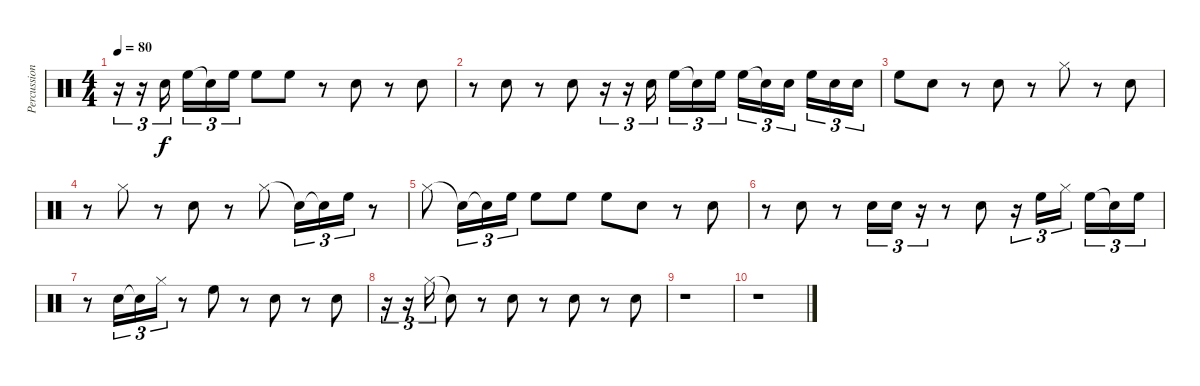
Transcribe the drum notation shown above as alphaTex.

\track ("Percussion" "Percussion") {instrument percussion}
\staff {score}
\articulation defaults
\ts (4 4)
\tempo 80
\clef neutral
\ks c
r.16{tu (3 2) dy f} r.16{tu (3 2)} "Snare (hit) 2".16{tu (3 2)} "High Floor Tom (hit)".16{tu (3 2)} "Snare (hit)"{t}.16{tu (3 2)} "High Floor Tom (hit)".16{tu (3 2)} "High Floor Tom (hit)".8 "High Floor Tom (hit)".8 r.8 "Snare (hit) 2".8 r.8 "Snare (hit) 2".8 |
r.8 "Snare (hit) 2".8 r.8 "Snare (hit) 2".8 r.16{tu (3 2)} r.16{tu (3 2)} "Snare (hit) 2".16{tu (3 2)} "High Floor Tom (hit)".16{tu (3 2)} "Snare (hit)"{t}.16{tu (3 2)} "High Floor Tom (hit)".16{tu (3 2)} "High Floor Tom (hit)".16{tu (3 2)} "Snare (hit)"{t}.16{tu (3 2)} "Snare (hit) 2".16{tu (3 2)} "High Floor Tom (hit)".16{tu (3 2)} "Snare (hit) 2".16{tu (3 2)} "Snare (hit) 2".16{tu (3 2)} |
"High Floor Tom (hit)".8 "Snare (hit) 2".8 r.8 "Snare (hit) 2".8 r.8 "Hi-Hat (closed)".8 r.8 "Snare (hit) 2".8 |
r.8 "Hi-Hat (closed)".8 r.8 "Snare (hit) 2".8 r.8 "Hi-Hat (closed)".8 "Snare (hit)"{t}.16{tu (3 2)} "Snare (hit)"{t}.16{tu (3 2)} "High Floor Tom (hit)".16{tu (3 2)} r.8 |
"Hi-Hat (closed)".8 "Snare (hit)"{t}.16{tu (3 2)} "Snare (hit)"{t}.16{tu (3 2)} "High Floor Tom (hit)".16{tu (3 2)} "High Floor Tom (hit)".8 "High Floor Tom (hit)".8 "High Floor Tom (hit)".8 "Snare (hit) 2".8 r.8 "Snare (hit) 2".8 |
r.8 "Snare (hit) 2".8 r.8 "Snare (hit) 2".16{tu (3 2)} "Snare (hit) 2".16{tu (3 2)} r.16{tu (3 2)} r.8 "Snare (hit) 2".8 r.16{tu (3 2)} "High Floor Tom (hit)".16{tu (3 2)} "Hi-Hat (closed)".16{tu (3 2)} "High Floor Tom (hit)".16{tu (3 2)} "Snare (hit)"{t}.16{tu (3 2)} "High Floor Tom (hit)".16{tu (3 2)} |
r.8 "Snare (hit) 2".16{tu (3 2)} "Snare (hit)"{t}.16{tu (3 2)} "Hi-Hat (closed)".16{tu (3 2)} r.8 "High Floor Tom (hit)".8 r.8 "Snare (hit) 2".8 r.8 "Snare (hit) 2".8 |
r.16{tu (3 2)} r.16{tu (3 2)} "Hi-Hat (closed)".16{tu (3 2)} "Snare (hit)"{t}.8 r.8 "Snare (hit) 2".8 r.8 "Snare (hit) 2".8 r.8 "Snare (hit) 2".8 |
r.1 |
r.1
